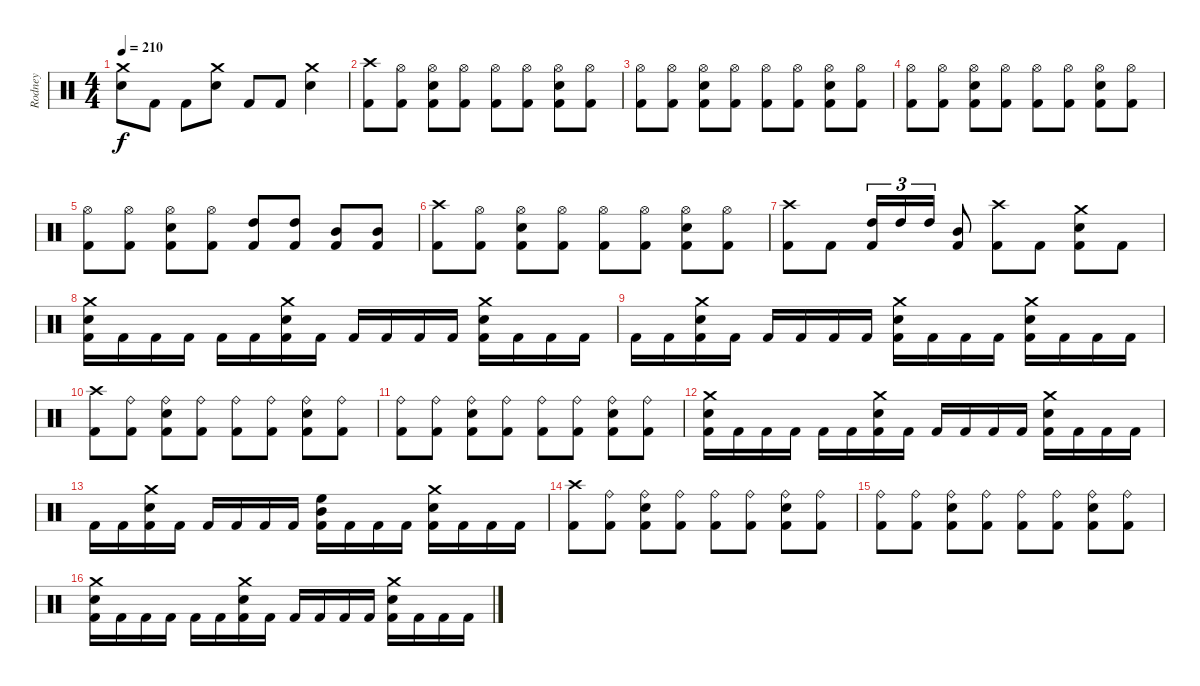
\track ("Rodney" "Rodney") {instrument percussion}
\staff {score}
\articulation defaults
\ts (4 4)
\tempo 210
\clef neutral
\ks c
("Crash medium (hit)" "Snare (hit) 2").8{dy f} "Kick (hit) 2".8 "Kick (hit) 2".8 ("Crash medium (hit)" "Snare (hit) 2").8 "Kick (hit) 2".8 "Kick (hit) 2".8 ("Crash medium (hit)" "Snare (hit) 2").4 |
("Crash high (hit)" "Kick (hit) 2").8 ("Hi-Hat (open)" "Kick (hit) 2").8 ("Hi-Hat (open)" "Snare (hit) 2" "Kick (hit) 2").8 ("Hi-Hat (open)" "Kick (hit) 2").8 ("Hi-Hat (open)" "Kick (hit) 2").8 ("Hi-Hat (open)" "Kick (hit) 2").8 ("Hi-Hat (open)" "Snare (hit) 2" "Kick (hit) 2").8 ("Hi-Hat (open)" "Kick (hit) 2").8 |
("Hi-Hat (open)" "Kick (hit) 2").8 ("Hi-Hat (open)" "Kick (hit) 2").8 ("Hi-Hat (open)" "Snare (hit) 2" "Kick (hit) 2").8 ("Hi-Hat (open)" "Kick (hit) 2").8 ("Hi-Hat (open)" "Kick (hit) 2").8 ("Hi-Hat (open)" "Kick (hit) 2").8 ("Hi-Hat (open)" "Snare (hit) 2" "Kick (hit) 2").8 ("Hi-Hat (open)" "Kick (hit) 2").8 |
("Hi-Hat (open)" "Kick (hit) 2").8 ("Hi-Hat (open)" "Kick (hit) 2").8 ("Hi-Hat (open)" "Snare (hit) 2" "Kick (hit) 2").8 ("Hi-Hat (open)" "Kick (hit) 2").8 ("Hi-Hat (open)" "Kick (hit) 2").8 ("Hi-Hat (open)" "Kick (hit) 2").8 ("Hi-Hat (open)" "Snare (hit) 2" "Kick (hit) 2").8 ("Hi-Hat (open)" "Kick (hit) 2").8 |
("Hi-Hat (open)" "Kick (hit) 2").8 ("Hi-Hat (open)" "Kick (hit) 2").8 ("Hi-Hat (open)" "Snare (hit) 2" "Kick (hit) 2").8 ("Hi-Hat (open)" "Kick (hit) 2").8 ("High Tom (hit)" "Kick (hit) 2").8 ("High Tom (hit)" "Kick (hit) 2").8 ("Mid Tom (hit)" "Kick (hit) 2").8 ("Mid Tom (hit)" "Kick (hit) 2").8 |
("Crash high (hit)" "Kick (hit) 2").8 ("Hi-Hat (open)" "Kick (hit) 2").8 ("Hi-Hat (open)" "Snare (hit) 2" "Kick (hit) 2").8 ("Hi-Hat (open)" "Kick (hit) 2").8 ("Hi-Hat (open)" "Kick (hit) 2").8 ("Hi-Hat (open)" "Kick (hit) 2").8 ("Hi-Hat (open)" "Snare (hit) 2" "Kick (hit) 2").8 ("Hi-Hat (open)" "Kick (hit) 2").8 |
("Crash high (hit)" "Kick (hit) 2").8 "Kick (hit) 2".8 ("High Tom (hit)" "Kick (hit) 2").16{tu (3 2)} "High Tom (hit)".16{tu (3 2)} "High Tom (hit)".16{tu (3 2)} ("Mid Tom (hit)" "Kick (hit) 2").8 ("Crash high (hit)" "Kick (hit) 2").8 "Kick (hit) 2".8 ("Crash medium (hit)" "Snare (hit) 2" "Kick (hit) 2").8 "Kick (hit) 2".8 |
("Crash medium (hit)" "Snare (hit) 2" "Kick (hit) 2").16 "Kick (hit) 2".16 "Kick (hit) 2".16 "Kick (hit) 2".16 "Kick (hit) 2".16 "Kick (hit) 2".16 ("Crash medium (hit)" "Snare (hit) 2" "Kick (hit) 2").16 "Kick (hit) 2".16 "Kick (hit) 2".16 "Kick (hit) 2".16 "Kick (hit) 2".16 "Kick (hit) 2".16 ("Crash medium (hit)" "Snare (hit) 2" "Kick (hit) 2").16 "Kick (hit) 2".16 "Kick (hit) 2".16 "Kick (hit) 2".16 |
"Kick (hit) 2".16 "Kick (hit) 2".16 ("Crash medium (hit)" "Snare (hit) 2" "Kick (hit) 2").16 "Kick (hit) 2".16 "Kick (hit) 2".16 "Kick (hit) 2".16 "Kick (hit) 2".16 "Kick (hit) 2".16 ("Crash medium (hit)" "Snare (hit) 2" "Kick (hit) 2").16 "Kick (hit) 2".16 "Kick (hit) 2".16 "Kick (hit) 2".16 ("Crash medium (hit)" "Snare (hit) 2" "Kick (hit) 2").16 "Kick (hit) 2".16 "Kick (hit) 2".16 "Kick (hit) 2".16 |
("Crash high (hit)" "Kick (hit) 2").8 ("Ride (bell)" "Kick (hit) 2").8 ("Ride (bell)" "Snare (hit) 2" "Kick (hit) 2").8 ("Ride (bell)" "Kick (hit) 2").8 ("Ride (bell)" "Kick (hit) 2").8 ("Ride (bell)" "Kick (hit) 2").8 ("Ride (bell)" "Snare (hit) 2" "Kick (hit) 2").8 ("Ride (bell)" "Kick (hit) 2").8 |
("Ride (bell)" "Kick (hit) 2").8 ("Ride (bell)" "Kick (hit) 2").8 ("Ride (bell)" "Snare (hit) 2" "Kick (hit) 2").8 ("Ride (bell)" "Kick (hit) 2").8 ("Ride (bell)" "Kick (hit) 2").8 ("Ride (bell)" "Kick (hit) 2").8 ("Ride (bell)" "Snare (hit) 2" "Kick (hit) 2").8 ("Ride (bell)" "Kick (hit) 2").8 |
("Crash medium (hit)" "Snare (hit) 2" "Kick (hit) 2").16 "Kick (hit) 2".16 "Kick (hit) 2".16 "Kick (hit) 2".16 "Kick (hit) 2".16 "Kick (hit) 2".16 ("Crash medium (hit)" "Snare (hit) 2" "Kick (hit) 2").16 "Kick (hit) 2".16 "Kick (hit) 2".16 "Kick (hit) 2".16 "Kick (hit) 2".16 "Kick (hit) 2".16 ("Crash medium (hit)" "Snare (hit) 2" "Kick (hit) 2").16 "Kick (hit) 2".16 "Kick (hit) 2".16 "Kick (hit) 2".16 |
"Kick (hit) 2".16 "Kick (hit) 2".16 ("Crash medium (hit)" "Snare (hit) 2" "Kick (hit) 2").16 "Kick (hit) 2".16 "Kick (hit) 2".16 "Kick (hit) 2".16 "Kick (hit) 2".16 "Kick (hit) 2".16 ("High Floor Tom (hit)" "Mid Tom (hit)" "Kick (hit) 2").16 "Kick (hit) 2".16 "Kick (hit) 2".16 "Kick (hit) 2".16 ("Crash medium (hit)" "Snare (hit) 2" "Kick (hit) 2").16 "Kick (hit) 2".16 "Kick (hit) 2".16 "Kick (hit) 2".16 |
("Crash high (hit)" "Kick (hit) 2").8 ("Ride (bell)" "Kick (hit) 2").8 ("Ride (bell)" "Snare (hit) 2" "Kick (hit) 2").8 ("Ride (bell)" "Kick (hit) 2").8 ("Ride (bell)" "Kick (hit) 2").8 ("Ride (bell)" "Kick (hit) 2").8 ("Ride (bell)" "Snare (hit) 2" "Kick (hit) 2").8 ("Ride (bell)" "Kick (hit) 2").8 |
("Ride (bell)" "Kick (hit) 2").8 ("Ride (bell)" "Kick (hit) 2").8 ("Ride (bell)" "Snare (hit) 2" "Kick (hit) 2").8 ("Ride (bell)" "Kick (hit) 2").8 ("Ride (bell)" "Kick (hit) 2").8 ("Ride (bell)" "Kick (hit) 2").8 ("Ride (bell)" "Snare (hit) 2" "Kick (hit) 2").8 ("Ride (bell)" "Kick (hit) 2").8 |
("Crash medium (hit)" "Snare (hit) 2" "Kick (hit) 2").16 "Kick (hit) 2".16 "Kick (hit) 2".16 "Kick (hit) 2".16 "Kick (hit) 2".16 "Kick (hit) 2".16 ("Crash medium (hit)" "Snare (hit) 2" "Kick (hit) 2").16 "Kick (hit) 2".16 "Kick (hit) 2".16 "Kick (hit) 2".16 "Kick (hit) 2".16 "Kick (hit) 2".16 ("Crash medium (hit)" "Snare (hit) 2" "Kick (hit) 2").16 "Kick (hit) 2".16 "Kick (hit) 2".16 "Kick (hit) 2".16
